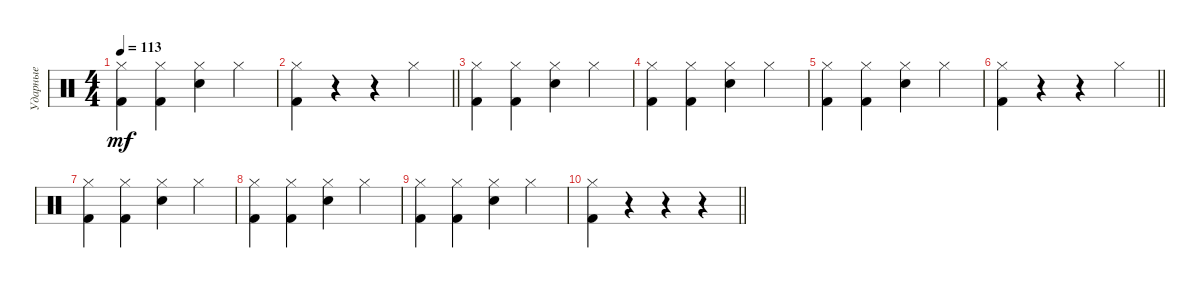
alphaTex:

\track ("Ударные" "Ударные") {instrument percussion}
\staff {score}
\articulation defaults
\ts (4 4)
\tempo 113
\clef neutral
\ks c
("Hi-Hat (closed)" "Kick (hit) 2").4{dy mf} ("Hi-Hat (closed)" "Kick (hit) 2").4 ("Hi-Hat (closed)" "Electric Snare (hit)").4 "Hi-Hat (closed)".4 |
\barLineRight lightlight
("Hi-Hat (closed)" "Kick (hit) 2").4 r.4 r.4 "Hi-Hat (closed)".4 |
("Hi-Hat (closed)" "Kick (hit) 2").4 ("Hi-Hat (closed)" "Kick (hit) 2").4 ("Hi-Hat (closed)" "Electric Snare (hit)").4 "Hi-Hat (closed)".4 |
("Hi-Hat (closed)" "Kick (hit) 2").4 ("Hi-Hat (closed)" "Kick (hit) 2").4 ("Hi-Hat (closed)" "Electric Snare (hit)").4 "Hi-Hat (closed)".4 |
("Hi-Hat (closed)" "Kick (hit) 2").4 ("Hi-Hat (closed)" "Kick (hit) 2").4 ("Hi-Hat (closed)" "Electric Snare (hit)").4 "Hi-Hat (closed)".4 |
\barLineRight lightlight
("Hi-Hat (closed)" "Kick (hit) 2").4 r.4 r.4 "Hi-Hat (closed)".4 |
("Hi-Hat (closed)" "Kick (hit) 2").4 ("Hi-Hat (closed)" "Kick (hit) 2").4 ("Hi-Hat (closed)" "Electric Snare (hit)").4 "Hi-Hat (closed)".4 |
("Hi-Hat (closed)" "Kick (hit) 2").4 ("Hi-Hat (closed)" "Kick (hit) 2").4 ("Hi-Hat (closed)" "Electric Snare (hit)").4 "Hi-Hat (closed)".4 |
("Hi-Hat (closed)" "Kick (hit) 2").4 ("Hi-Hat (closed)" "Kick (hit) 2").4 ("Hi-Hat (closed)" "Electric Snare (hit)").4 "Hi-Hat (closed)".4 |
\barLineRight lightlight
("Hi-Hat (closed)" "Kick (hit) 2").4 r.4 r.4 r.4
